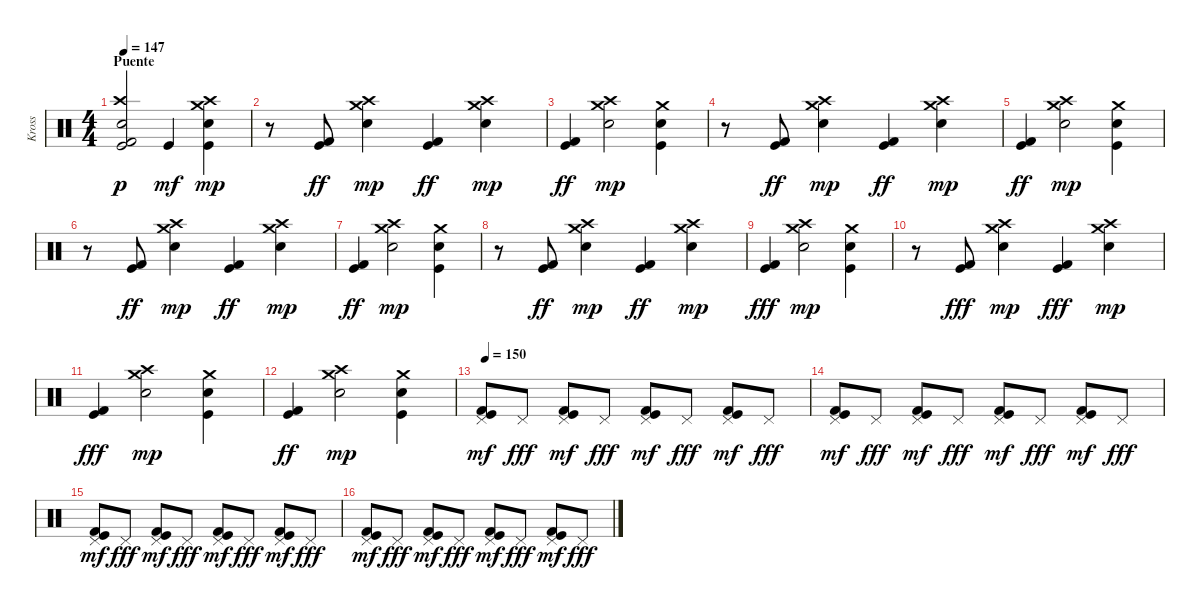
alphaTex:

\track ("Kross" "Kross") {instrument percussion}
\staff {score}
\articulation defaults
\ts (4 4)
\section ("" "Puente")
\tempo 147
\clef neutral
\ks c
("Kick (hit)" "Kick (hit) 2" "Crash high (hit)" "Snare (hit) 2").2{dy p volume 15} "Kick (hit)".4{dy mf} ("Crash medium (hit)" "Kick (hit)" "Crash high (hit)" "Snare (hit) 2").4{dy mp} |
r.8 ("Kick (hit)" "Kick (hit) 2").8{dy ff} ("Crash medium (hit)" "Crash high (hit)" "Snare (hit) 2").4{dy mp} ("Kick (hit)" "Kick (hit) 2").4{dy ff} ("Crash medium (hit)" "Crash high (hit)" "Snare (hit) 2").4{dy mp} |
("Kick (hit)" "Kick (hit) 2").4{dy ff} ("Crash medium (hit)" "Crash high (hit)" "Snare (hit) 2").2{dy mp} ("Kick (hit)" "Crash medium (hit)" "Snare (hit) 2").4 |
r.8 ("Kick (hit)" "Kick (hit) 2").8{dy ff} ("Crash medium (hit)" "Crash high (hit)" "Snare (hit) 2").4{dy mp} ("Kick (hit)" "Kick (hit) 2").4{dy ff} ("Crash medium (hit)" "Crash high (hit)" "Snare (hit) 2").4{dy mp} |
("Kick (hit)" "Kick (hit) 2").4{dy ff} ("Crash medium (hit)" "Crash high (hit)" "Snare (hit) 2").2{dy mp} ("Kick (hit)" "Crash medium (hit)" "Snare (hit) 2").4 |
r.8 ("Kick (hit)" "Kick (hit) 2").8{dy ff} ("Crash medium (hit)" "Crash high (hit)" "Snare (hit) 2").4{dy mp} ("Kick (hit)" "Kick (hit) 2").4{dy ff} ("Crash medium (hit)" "Crash high (hit)" "Snare (hit) 2").4{dy mp} |
("Kick (hit)" "Kick (hit) 2").4{dy ff} ("Crash medium (hit)" "Crash high (hit)" "Snare (hit) 2").2{dy mp} ("Kick (hit)" "Crash medium (hit)" "Snare (hit) 2").4 |
r.8 ("Kick (hit)" "Kick (hit) 2").8{dy ff} ("Crash medium (hit)" "Crash high (hit)" "Snare (hit) 2").4{dy mp} ("Kick (hit)" "Kick (hit) 2").4{dy ff} ("Crash medium (hit)" "Crash high (hit)" "Snare (hit) 2").4{dy mp} |
("Kick (hit)" "Kick (hit) 2").4{dy fff} ("Crash medium (hit)" "Crash high (hit)" "Snare (hit) 2").2{dy mp} ("Kick (hit)" "Crash medium (hit)" "Snare (hit) 2").4 |
r.8 ("Kick (hit)" "Kick (hit) 2").8{dy fff} ("Crash medium (hit)" "Crash high (hit)" "Snare (hit) 2").4{dy mp} ("Kick (hit)" "Kick (hit) 2").4{dy fff} ("Crash medium (hit)" "Crash high (hit)" "Snare (hit) 2").4{dy mp} |
("Kick (hit)" "Kick (hit) 2").4{dy fff} ("Crash medium (hit)" "Crash high (hit)" "Snare (hit) 2").2{dy mp} ("Kick (hit)" "Crash medium (hit)" "Snare (hit) 2").4 |
("Kick (hit)" "Kick (hit) 2").4{dy ff} ("Crash medium (hit)" "Crash high (hit)" "Snare (hit) 2").2{dy mp} ("Kick (hit)" "Crash medium (hit)" "Snare (hit) 2").4 |
\tempo 150
("Kick (hit)" "Kick (hit) 2" "Pedal Hi-Hat (hit)").8{dy mf volume 16} "Pedal Hi-Hat (hit)".8{dy fff} ("Kick (hit)" "Kick (hit) 2" "Pedal Hi-Hat (hit)").8{dy mf} "Pedal Hi-Hat (hit)".8{dy fff} ("Kick (hit)" "Kick (hit) 2" "Pedal Hi-Hat (hit)").8{dy mf} "Pedal Hi-Hat (hit)".8{dy fff} ("Kick (hit)" "Kick (hit) 2" "Pedal Hi-Hat (hit)").8{dy mf} "Pedal Hi-Hat (hit)".8{dy fff} |
("Kick (hit)" "Kick (hit) 2" "Pedal Hi-Hat (hit)").8{dy mf} "Pedal Hi-Hat (hit)".8{dy fff} ("Kick (hit)" "Kick (hit) 2" "Pedal Hi-Hat (hit)").8{dy mf} "Pedal Hi-Hat (hit)".8{dy fff} ("Kick (hit)" "Kick (hit) 2" "Pedal Hi-Hat (hit)").8{dy mf} "Pedal Hi-Hat (hit)".8{dy fff} ("Kick (hit)" "Kick (hit) 2" "Pedal Hi-Hat (hit)").8{dy mf} "Pedal Hi-Hat (hit)".8{dy fff} |
("Kick (hit)" "Kick (hit) 2" "Pedal Hi-Hat (hit)").8{dy mf} "Pedal Hi-Hat (hit)".8{dy fff} ("Kick (hit)" "Kick (hit) 2" "Pedal Hi-Hat (hit)").8{dy mf} "Pedal Hi-Hat (hit)".8{dy fff} ("Kick (hit)" "Kick (hit) 2" "Pedal Hi-Hat (hit)").8{dy mf} "Pedal Hi-Hat (hit)".8{dy fff} ("Kick (hit)" "Kick (hit) 2" "Pedal Hi-Hat (hit)").8{dy mf} "Pedal Hi-Hat (hit)".8{dy fff} |
("Kick (hit)" "Kick (hit) 2" "Pedal Hi-Hat (hit)").8{dy mf} "Pedal Hi-Hat (hit)".8{dy fff} ("Kick (hit)" "Kick (hit) 2" "Pedal Hi-Hat (hit)").8{dy mf} "Pedal Hi-Hat (hit)".8{dy fff} ("Kick (hit)" "Kick (hit) 2" "Pedal Hi-Hat (hit)").8{dy mf} "Pedal Hi-Hat (hit)".8{dy fff} ("Kick (hit)" "Kick (hit) 2" "Pedal Hi-Hat (hit)").8{dy mf} "Pedal Hi-Hat (hit)".8{dy fff}
